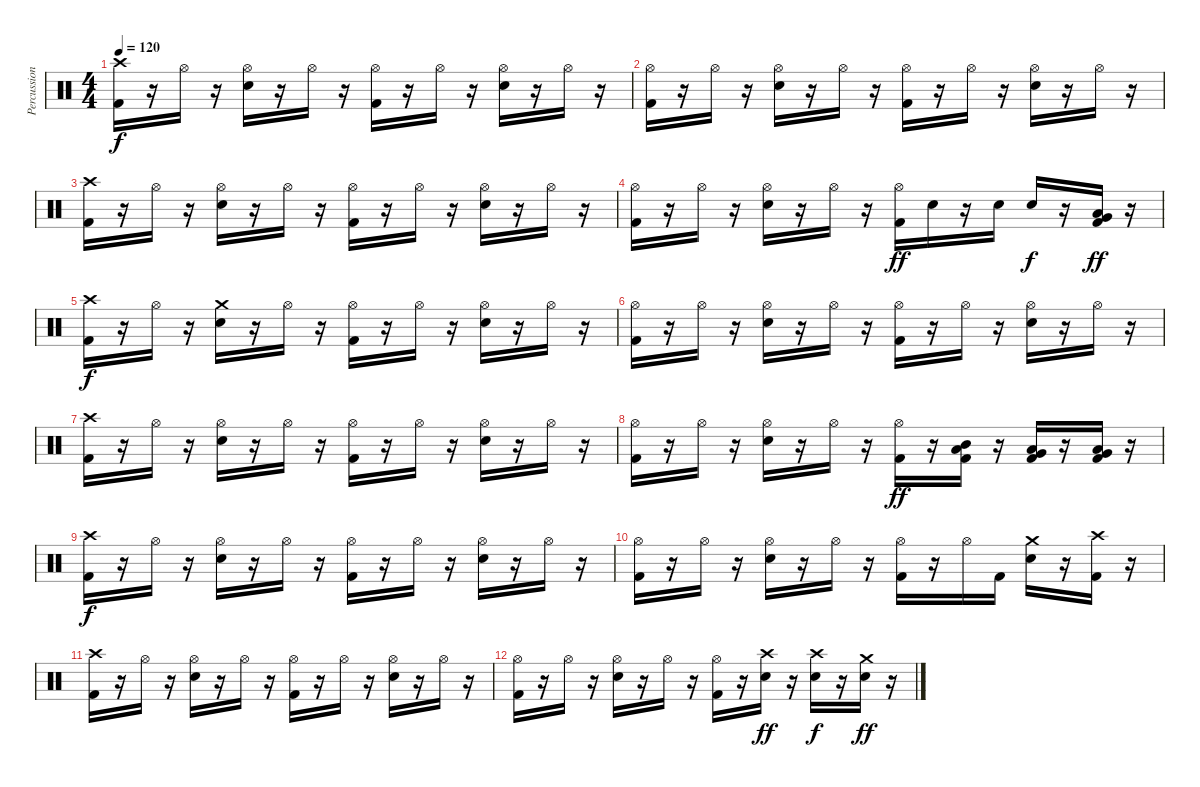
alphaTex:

\track ("Percussion" "Percussion") {instrument percussion}
\staff {score}
\articulation defaults
\ts (4 4)
\tempo 120
\clef neutral
\ks c
("Crash high (hit)" "Kick (hit) 2").16{dy f} r.16 "Hi-Hat (open)".16 r.16 ("Hi-Hat (open)" "Snare (hit) 2").16 r.16 "Hi-Hat (open)".16 r.16 ("Hi-Hat (open)" "Kick (hit) 2").16 r.16 "Hi-Hat (open)".16 r.16 ("Hi-Hat (open)" "Snare (hit) 2").16 r.16 "Hi-Hat (open)".16 r.16 |
("Hi-Hat (open)" "Kick (hit) 2").16 r.16 "Hi-Hat (open)".16 r.16 ("Hi-Hat (open)" "Snare (hit) 2").16 r.16 "Hi-Hat (open)".16 r.16 ("Hi-Hat (open)" "Kick (hit) 2").16 r.16 "Hi-Hat (open)".16 r.16 ("Hi-Hat (open)" "Snare (hit) 2").16 r.16 "Hi-Hat (open)".16 r.16 |
("Crash high (hit)" "Kick (hit) 2").16 r.16 "Hi-Hat (open)".16 r.16 ("Hi-Hat (open)" "Snare (hit) 2").16 r.16 "Hi-Hat (open)".16 r.16 ("Hi-Hat (open)" "Kick (hit) 2").16 r.16 "Hi-Hat (open)".16 r.16 ("Hi-Hat (open)" "Snare (hit) 2").16 r.16 "Hi-Hat (open)".16 r.16 |
("Hi-Hat (open)" "Kick (hit) 2").16 r.16 "Hi-Hat (open)".16 r.16 ("Hi-Hat (open)" "Snare (hit) 2").16 r.16 "Hi-Hat (open)".16 r.16 ("Hi-Hat (open)" "Kick (hit) 2").16{dy ff} "Snare (hit) 2".16 r.16 "Snare (hit) 2".16 "Snare (hit) 2".16{dy f} r.16 ("Low Tom (hit)" "Very Low Tom (hit)" "Kick (hit) 2").16{dy ff} r.16 |
("Crash high (hit)" "Kick (hit) 2").16{dy f} r.16 "Hi-Hat (open)".16 r.16 ("Crash medium (hit)" "Snare (hit) 2").16 r.16 "Hi-Hat (open)".16 r.16 ("Hi-Hat (open)" "Kick (hit) 2").16 r.16 "Hi-Hat (open)".16 r.16 ("Hi-Hat (open)" "Snare (hit) 2").16 r.16 "Hi-Hat (open)".16 r.16 |
("Hi-Hat (open)" "Kick (hit) 2").16 r.16 "Hi-Hat (open)".16 r.16 ("Hi-Hat (open)" "Snare (hit) 2").16 r.16 "Hi-Hat (open)".16 r.16 ("Hi-Hat (open)" "Kick (hit) 2").16 r.16 "Hi-Hat (open)".16 r.16 ("Hi-Hat (open)" "Snare (hit) 2").16 r.16 "Hi-Hat (open)".16 r.16 |
("Crash high (hit)" "Kick (hit) 2").16 r.16 "Hi-Hat (open)".16 r.16 ("Hi-Hat (open)" "Snare (hit) 2").16 r.16 "Hi-Hat (open)".16 r.16 ("Hi-Hat (open)" "Kick (hit) 2").16 r.16 "Hi-Hat (open)".16 r.16 ("Hi-Hat (open)" "Snare (hit) 2").16 r.16 "Hi-Hat (open)".16 r.16 |
("Hi-Hat (open)" "Kick (hit) 2").16 r.16 "Hi-Hat (open)".16 r.16 ("Hi-Hat (open)" "Snare (hit) 2").16 r.16 "Hi-Hat (open)".16 r.16 ("Hi-Hat (open)" "Kick (hit) 2").16{dy ff} r.16 ("Mid Tom (hit)" "Low Tom (hit)" "Kick (hit) 2").16 r.16 ("Low Tom (hit)" "Very Low Tom (hit)" "Kick (hit) 2").16 r.16 ("Very Low Tom (hit)" "Low Floor Tom (hit)" "Kick (hit) 2").16 r.16 |
("Crash high (hit)" "Kick (hit) 2").16{dy f} r.16 "Hi-Hat (open)".16 r.16 ("Hi-Hat (open)" "Snare (hit) 2").16 r.16 "Hi-Hat (open)".16 r.16 ("Hi-Hat (open)" "Kick (hit) 2").16 r.16 "Hi-Hat (open)".16 r.16 ("Hi-Hat (open)" "Snare (hit) 2").16 r.16 "Hi-Hat (open)".16 r.16 |
("Hi-Hat (open)" "Kick (hit) 2").16 r.16 "Hi-Hat (open)".16 r.16 ("Hi-Hat (open)" "Snare (hit) 2").16 r.16 "Hi-Hat (open)".16 r.16 ("Hi-Hat (open)" "Kick (hit) 2").16 r.16 "Hi-Hat (open)".16 "Kick (hit) 2".16 ("Crash medium (hit)" "Snare (hit) 2").16 r.16 ("Crash high (hit)" "Kick (hit) 2").16 r.16 |
("Crash high (hit)" "Kick (hit) 2").16 r.16 "Hi-Hat (open)".16 r.16 ("Hi-Hat (open)" "Snare (hit) 2").16 r.16 "Hi-Hat (open)".16 r.16 ("Hi-Hat (open)" "Kick (hit) 2").16 r.16 "Hi-Hat (open)".16 r.16 ("Hi-Hat (open)" "Snare (hit) 2").16 r.16 "Hi-Hat (open)".16 r.16 |
("Hi-Hat (open)" "Kick (hit) 2").16 r.16 "Hi-Hat (open)".16 r.16 ("Hi-Hat (open)" "Snare (hit) 2").16 r.16 "Hi-Hat (open)".16 r.16 ("Hi-Hat (open)" "Kick (hit) 2").16 r.16 ("Crash high (hit)" "Snare (hit) 2").16{dy ff} r.16 ("Crash high (hit)" "Snare (hit) 2").16{dy f} r.16 ("Crash medium (hit)" "Snare (hit) 2").16{dy ff} r.16
